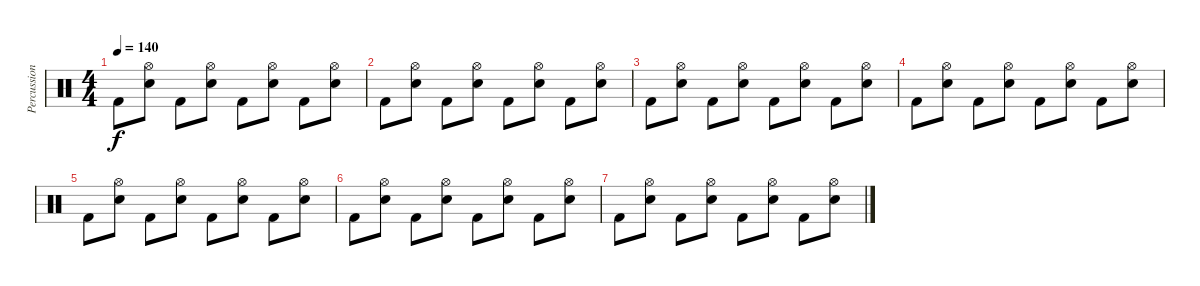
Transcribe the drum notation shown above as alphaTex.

\track ("Percussion" "Percussion") {instrument percussion}
\staff {score}
\articulation defaults
\ts (4 4)
\tempo 140
\clef neutral
\ks c "Kick (hit) 2".8{dy f}
("Hi-Hat (open)" "Hand Clap (hit)").8 "Kick (hit) 2".8 ("Hi-Hat (open)" "Hand Clap (hit)").8 "Kick (hit) 2".8 ("Hi-Hat (open)" "Hand Clap (hit)").8 "Kick (hit) 2".8 ("Hi-Hat (open)" "Hand Clap (hit)").8 |
"Kick (hit) 2".8 ("Hi-Hat (open)" "Hand Clap (hit)").8 "Kick (hit) 2".8 ("Hi-Hat (open)" "Hand Clap (hit)").8 "Kick (hit) 2".8 ("Hi-Hat (open)" "Hand Clap (hit)").8 "Kick (hit) 2".8 ("Hi-Hat (open)" "Hand Clap (hit)").8 |
"Kick (hit) 2".8 ("Hi-Hat (open)" "Hand Clap (hit)").8 "Kick (hit) 2".8 ("Hi-Hat (open)" "Hand Clap (hit)").8 "Kick (hit) 2".8 ("Hi-Hat (open)" "Hand Clap (hit)").8 "Kick (hit) 2".8 ("Hi-Hat (open)" "Hand Clap (hit)").8 |
"Kick (hit) 2".8 ("Hi-Hat (open)" "Hand Clap (hit)").8 "Kick (hit) 2".8 ("Hi-Hat (open)" "Hand Clap (hit)").8 "Kick (hit) 2".8 ("Hi-Hat (open)" "Hand Clap (hit)").8 "Kick (hit) 2".8 ("Hi-Hat (open)" "Hand Clap (hit)").8 |
"Kick (hit) 2".8 ("Hi-Hat (open)" "Hand Clap (hit)").8 "Kick (hit) 2".8 ("Hi-Hat (open)" "Hand Clap (hit)").8 "Kick (hit) 2".8 ("Hi-Hat (open)" "Hand Clap (hit)").8 "Kick (hit) 2".8 ("Hi-Hat (open)" "Hand Clap (hit)").8 |
"Kick (hit) 2".8 ("Hi-Hat (open)" "Hand Clap (hit)").8 "Kick (hit) 2".8 ("Hi-Hat (open)" "Hand Clap (hit)").8 "Kick (hit) 2".8 ("Hi-Hat (open)" "Hand Clap (hit)").8 "Kick (hit) 2".8 ("Hi-Hat (open)" "Hand Clap (hit)").8 |
"Kick (hit) 2".8 ("Hi-Hat (open)" "Hand Clap (hit)").8 "Kick (hit) 2".8 ("Hi-Hat (open)" "Hand Clap (hit)").8 "Kick (hit) 2".8 ("Hi-Hat (open)" "Hand Clap (hit)").8 "Kick (hit) 2".8 ("Hi-Hat (open)" "Hand Clap (hit)").8
